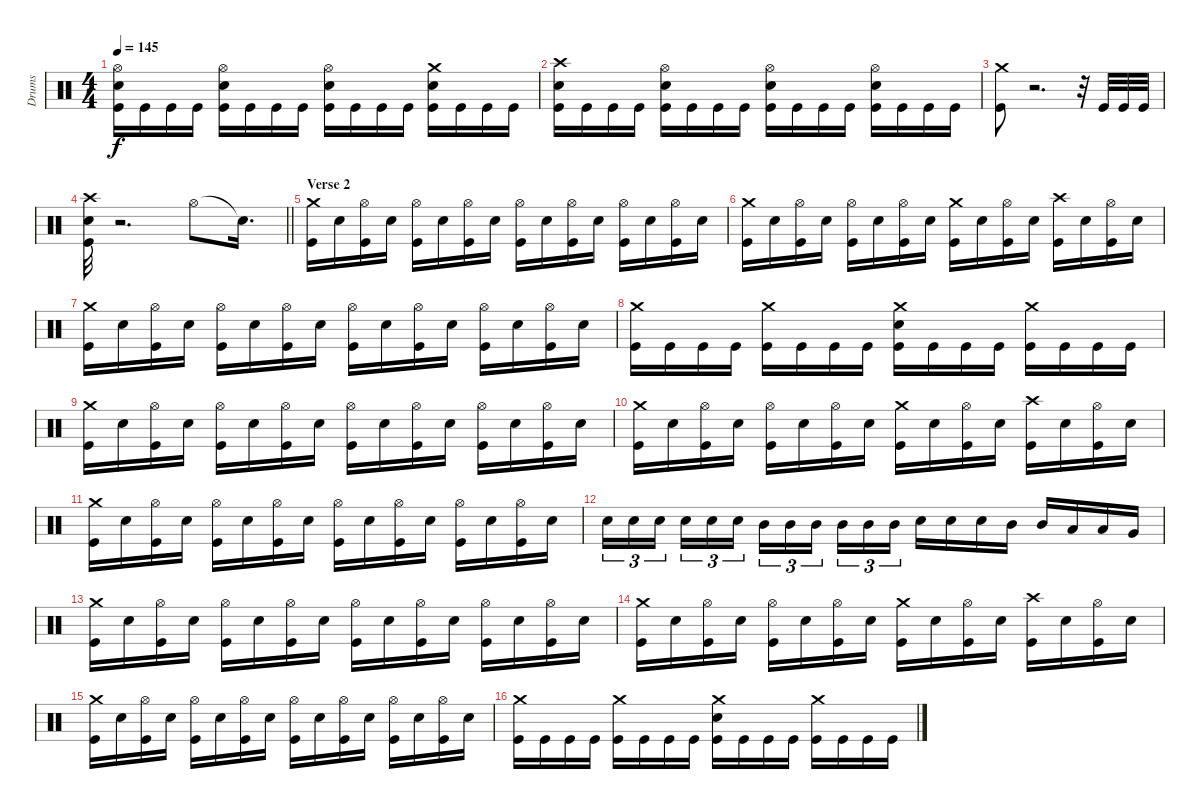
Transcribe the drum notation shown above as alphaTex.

\track ("Drums" "Drums") {instrument percussion}
\staff {score}
\articulation defaults
\ts (4 4)
\tempo 145
\clef neutral
\ks c
("Hi-Hat (open)" "Snare (hit) 2" "Kick (hit)").16{dy f} "Kick (hit)".16 "Kick (hit)".16 "Kick (hit)".16 ("Hi-Hat (open)" "Snare (hit) 2" "Kick (hit)").16 "Kick (hit)".16 "Kick (hit)".16 "Kick (hit)".16 ("Hi-Hat (open)" "Snare (hit) 2" "Kick (hit)").16 "Kick (hit)".16 "Kick (hit)".16 "Kick (hit)".16 ("Crash medium (hit)" "Snare (hit) 2" "Kick (hit)").16 "Kick (hit)".16 "Kick (hit)".16 "Kick (hit)".16 |
("Crash high (hit)" "Snare (hit) 2" "Kick (hit)").16 "Kick (hit)".16 "Kick (hit)".16 "Kick (hit)".16 ("Hi-Hat (open)" "Snare (hit) 2" "Kick (hit)").16 "Kick (hit)".16 "Kick (hit)".16 "Kick (hit)".16 ("Hi-Hat (open)" "Snare (hit) 2" "Kick (hit)").16 "Kick (hit)".16 "Kick (hit)".16 "Kick (hit)".16 ("Hi-Hat (open)" "Snare (hit) 2" "Kick (hit)").16 "Kick (hit)".16 "Kick (hit)".16 "Kick (hit)".16 |
("Crash medium (hit)" "Kick (hit)").8 r.2{d} r.32 "Kick (hit)".32 "Kick (hit)".32 "Kick (hit)".32 |
\barLineRight lightlight
("Crash high (hit)" "Snare (hit) 2" "Kick (hit)").32 r.2{d} "Hi-Hat (open)".8 "Snare (hit)"{t}.16{d} |
\section ("" "Verse 2")
("Crash medium (hit)" "Kick (hit)").16 "Snare (hit) 2".16 ("Hi-Hat (open)" "Kick (hit)").16 "Snare (hit) 2".16 ("Hi-Hat (open)" "Kick (hit)").16 "Snare (hit) 2".16 ("Hi-Hat (open)" "Kick (hit)").16 "Snare (hit) 2".16 ("Hi-Hat (open)" "Kick (hit)").16 "Snare (hit) 2".16 ("Hi-Hat (open)" "Kick (hit)").16 "Snare (hit) 2".16 ("Hi-Hat (open)" "Kick (hit)").16 "Snare (hit) 2".16 ("Hi-Hat (open)" "Kick (hit)").16 "Snare (hit) 2".16 |
("Crash medium (hit)" "Kick (hit)").16 "Snare (hit) 2".16 ("Hi-Hat (open)" "Kick (hit)").16 "Snare (hit) 2".16 ("Hi-Hat (open)" "Kick (hit)").16 "Snare (hit) 2".16 ("Hi-Hat (open)" "Kick (hit)").16 "Snare (hit) 2".16 ("Crash medium (hit)" "Kick (hit)").16 "Snare (hit) 2".16 ("Hi-Hat (open)" "Kick (hit)").16 "Snare (hit) 2".16 ("Crash high (hit)" "Kick (hit)").16 "Snare (hit) 2".16 ("Hi-Hat (open)" "Kick (hit)").16 "Snare (hit) 2".16 |
("Crash medium (hit)" "Kick (hit)").16 "Snare (hit) 2".16 ("Hi-Hat (open)" "Kick (hit)").16 "Snare (hit) 2".16 ("Hi-Hat (open)" "Kick (hit)").16 "Snare (hit) 2".16 ("Hi-Hat (open)" "Kick (hit)").16 "Snare (hit) 2".16 ("Hi-Hat (open)" "Kick (hit)").16 "Snare (hit) 2".16 ("Hi-Hat (open)" "Kick (hit)").16 "Snare (hit) 2".16 ("Hi-Hat (open)" "Kick (hit)").16 "Snare (hit) 2".16 ("Hi-Hat (open)" "Kick (hit)").16 "Snare (hit) 2".16 |
("Crash medium (hit)" "Kick (hit)").16 "Kick (hit)".16 "Kick (hit)".16 "Kick (hit)".16 ("Crash medium (hit)" "Kick (hit)").16 "Kick (hit)".16 "Kick (hit)".16 "Kick (hit)".16 ("Crash medium (hit)" "Snare (hit) 2" "Kick (hit)").16 "Kick (hit)".16 "Kick (hit)".16 "Kick (hit)".16 ("Crash medium (hit)" "Kick (hit)").16 "Kick (hit)".16 "Kick (hit)".16 "Kick (hit)".16 |
("Crash medium (hit)" "Kick (hit)").16 "Snare (hit) 2".16 ("Hi-Hat (open)" "Kick (hit)").16 "Snare (hit) 2".16 ("Hi-Hat (open)" "Kick (hit)").16 "Snare (hit) 2".16 ("Hi-Hat (open)" "Kick (hit)").16 "Snare (hit) 2".16 ("Hi-Hat (open)" "Kick (hit)").16 "Snare (hit) 2".16 ("Hi-Hat (open)" "Kick (hit)").16 "Snare (hit) 2".16 ("Hi-Hat (open)" "Kick (hit)").16 "Snare (hit) 2".16 ("Hi-Hat (open)" "Kick (hit)").16 "Snare (hit) 2".16 |
("Crash medium (hit)" "Kick (hit)").16 "Snare (hit) 2".16 ("Hi-Hat (open)" "Kick (hit)").16 "Snare (hit) 2".16 ("Hi-Hat (open)" "Kick (hit)").16 "Snare (hit) 2".16 ("Hi-Hat (open)" "Kick (hit)").16 "Snare (hit) 2".16 ("Crash medium (hit)" "Kick (hit)").16 "Snare (hit) 2".16 ("Hi-Hat (open)" "Kick (hit)").16 "Snare (hit) 2".16 ("Crash high (hit)" "Kick (hit)").16 "Snare (hit) 2".16 ("Hi-Hat (open)" "Kick (hit)").16 "Snare (hit) 2".16 |
("Crash medium (hit)" "Kick (hit)").16 "Snare (hit) 2".16 ("Hi-Hat (open)" "Kick (hit)").16 "Snare (hit) 2".16 ("Hi-Hat (open)" "Kick (hit)").16 "Snare (hit) 2".16 ("Hi-Hat (open)" "Kick (hit)").16 "Snare (hit) 2".16 ("Hi-Hat (open)" "Kick (hit)").16 "Snare (hit) 2".16 ("Hi-Hat (open)" "Kick (hit)").16 "Snare (hit) 2".16 ("Hi-Hat (open)" "Kick (hit)").16 "Snare (hit) 2".16 ("Hi-Hat (open)" "Kick (hit)").16 "Snare (hit) 2".16 |
"Snare (hit) 2".16{tu (3 2)} "Snare (hit) 2".16{tu (3 2)} "Snare (hit) 2".16{tu (3 2) beam splitsecondary} "Snare (hit) 2".16{tu (3 2)} "Snare (hit) 2".16{tu (3 2)} "Snare (hit) 2".16{tu (3 2)} "Mid Tom (hit)".16{tu (3 2)} "Mid Tom (hit)".16{tu (3 2)} "Mid Tom (hit)".16{tu (3 2) beam splitsecondary} "Mid Tom (hit)".16{tu (3 2)} "Mid Tom (hit)".16{tu (3 2)} "Mid Tom (hit)".16{tu (3 2)} "Snare (hit) 2".16 "Snare (hit) 2".16 "Snare (hit) 2".16 "Mid Tom (hit)".16 "Mid Tom (hit)".16 "Low Tom (hit)".16 "Low Tom (hit)".16 "Very Low Tom (hit)".16 |
("Crash medium (hit)" "Kick (hit)").16 "Snare (hit) 2".16 ("Hi-Hat (open)" "Kick (hit)").16 "Snare (hit) 2".16 ("Hi-Hat (open)" "Kick (hit)").16 "Snare (hit) 2".16 ("Hi-Hat (open)" "Kick (hit)").16 "Snare (hit) 2".16 ("Hi-Hat (open)" "Kick (hit)").16 "Snare (hit) 2".16 ("Hi-Hat (open)" "Kick (hit)").16 "Snare (hit) 2".16 ("Hi-Hat (open)" "Kick (hit)").16 "Snare (hit) 2".16 ("Hi-Hat (open)" "Kick (hit)").16 "Snare (hit) 2".16 |
("Crash medium (hit)" "Kick (hit)").16 "Snare (hit) 2".16 ("Hi-Hat (open)" "Kick (hit)").16 "Snare (hit) 2".16 ("Hi-Hat (open)" "Kick (hit)").16 "Snare (hit) 2".16 ("Hi-Hat (open)" "Kick (hit)").16 "Snare (hit) 2".16 ("Crash medium (hit)" "Kick (hit)").16 "Snare (hit) 2".16 ("Hi-Hat (open)" "Kick (hit)").16 "Snare (hit) 2".16 ("Crash high (hit)" "Kick (hit)").16 "Snare (hit) 2".16 ("Hi-Hat (open)" "Kick (hit)").16 "Snare (hit) 2".16 |
("Crash medium (hit)" "Kick (hit)").16 "Snare (hit) 2".16 ("Hi-Hat (open)" "Kick (hit)").16 "Snare (hit) 2".16 ("Hi-Hat (open)" "Kick (hit)").16 "Snare (hit) 2".16 ("Hi-Hat (open)" "Kick (hit)").16 "Snare (hit) 2".16 ("Hi-Hat (open)" "Kick (hit)").16 "Snare (hit) 2".16 ("Hi-Hat (open)" "Kick (hit)").16 "Snare (hit) 2".16 ("Hi-Hat (open)" "Kick (hit)").16 "Snare (hit) 2".16 ("Hi-Hat (open)" "Kick (hit)").16 "Snare (hit) 2".16 |
("Crash medium (hit)" "Kick (hit)").16 "Kick (hit)".16 "Kick (hit)".16 "Kick (hit)".16 ("Crash medium (hit)" "Kick (hit)").16 "Kick (hit)".16 "Kick (hit)".16 "Kick (hit)".16 ("Crash medium (hit)" "Snare (hit) 2" "Kick (hit)").16 "Kick (hit)".16 "Kick (hit)".16 "Kick (hit)".16 ("Crash medium (hit)" "Kick (hit)").16 "Kick (hit)".16 "Kick (hit)".16 "Kick (hit)".16
